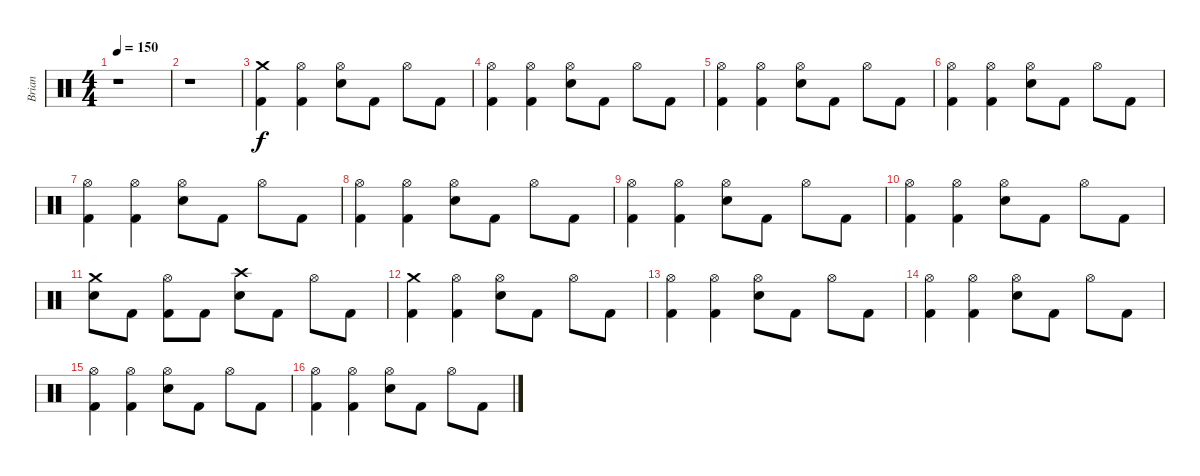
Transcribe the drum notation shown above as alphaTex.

\track ("Brian" "Brian") {instrument percussion}
\staff {score}
\articulation defaults
\ts (4 4)
\tempo 150
\clef neutral
\ks c
r.1{dy f} |
r.1 |
("Crash medium (hit)" "Kick (hit) 2").4 ("Hi-Hat (open)" "Kick (hit) 2").4 ("Hi-Hat (open)" "Snare (hit) 2").8 "Kick (hit) 2".8 "Hi-Hat (open)".8 "Kick (hit) 2".8 |
("Hi-Hat (open)" "Kick (hit) 2").4 ("Hi-Hat (open)" "Kick (hit) 2").4 ("Hi-Hat (open)" "Snare (hit) 2").8 "Kick (hit) 2".8 "Hi-Hat (open)".8 "Kick (hit) 2".8 |
("Hi-Hat (open)" "Kick (hit) 2").4 ("Hi-Hat (open)" "Kick (hit) 2").4 ("Hi-Hat (open)" "Snare (hit) 2").8 "Kick (hit) 2".8 "Hi-Hat (open)".8 "Kick (hit) 2".8 |
("Hi-Hat (open)" "Kick (hit) 2").4 ("Hi-Hat (open)" "Kick (hit) 2").4 ("Hi-Hat (open)" "Snare (hit) 2").8 "Kick (hit) 2".8 "Hi-Hat (open)".8 "Kick (hit) 2".8 |
("Hi-Hat (open)" "Kick (hit) 2").4 ("Hi-Hat (open)" "Kick (hit) 2").4 ("Hi-Hat (open)" "Snare (hit) 2").8 "Kick (hit) 2".8 "Hi-Hat (open)".8 "Kick (hit) 2".8 |
("Hi-Hat (open)" "Kick (hit) 2").4 ("Hi-Hat (open)" "Kick (hit) 2").4 ("Hi-Hat (open)" "Snare (hit) 2").8 "Kick (hit) 2".8 "Hi-Hat (open)".8 "Kick (hit) 2".8 |
("Hi-Hat (open)" "Kick (hit) 2").4 ("Hi-Hat (open)" "Kick (hit) 2").4 ("Hi-Hat (open)" "Snare (hit) 2").8 "Kick (hit) 2".8 "Hi-Hat (open)".8 "Kick (hit) 2".8 |
("Hi-Hat (open)" "Kick (hit) 2").4 ("Hi-Hat (open)" "Kick (hit) 2").4 ("Hi-Hat (open)" "Snare (hit) 2").8 "Kick (hit) 2".8 "Hi-Hat (open)".8 "Kick (hit) 2".8 |
("Crash medium (hit)" "Snare (hit) 2").8 "Kick (hit) 2".8 ("Hi-Hat (open)" "Kick (hit) 2").8 "Kick (hit) 2".8 ("Crash high (hit)" "Snare (hit) 2").8 "Kick (hit) 2".8 "Hi-Hat (open)".8 "Kick (hit) 2".8 |
("Crash medium (hit)" "Kick (hit) 2").4 ("Hi-Hat (open)" "Kick (hit) 2").4 ("Hi-Hat (open)" "Snare (hit) 2").8 "Kick (hit) 2".8 "Hi-Hat (open)".8 "Kick (hit) 2".8 |
("Hi-Hat (open)" "Kick (hit) 2").4 ("Hi-Hat (open)" "Kick (hit) 2").4 ("Hi-Hat (open)" "Snare (hit) 2").8 "Kick (hit) 2".8 "Hi-Hat (open)".8 "Kick (hit) 2".8 |
("Hi-Hat (open)" "Kick (hit) 2").4 ("Hi-Hat (open)" "Kick (hit) 2").4 ("Hi-Hat (open)" "Snare (hit) 2").8 "Kick (hit) 2".8 "Hi-Hat (open)".8 "Kick (hit) 2".8 |
("Hi-Hat (open)" "Kick (hit) 2").4 ("Hi-Hat (open)" "Kick (hit) 2").4 ("Hi-Hat (open)" "Snare (hit) 2").8 "Kick (hit) 2".8 "Hi-Hat (open)".8 "Kick (hit) 2".8 |
("Hi-Hat (open)" "Kick (hit) 2").4 ("Hi-Hat (open)" "Kick (hit) 2").4 ("Hi-Hat (open)" "Snare (hit) 2").8 "Kick (hit) 2".8 "Hi-Hat (open)".8 "Kick (hit) 2".8
